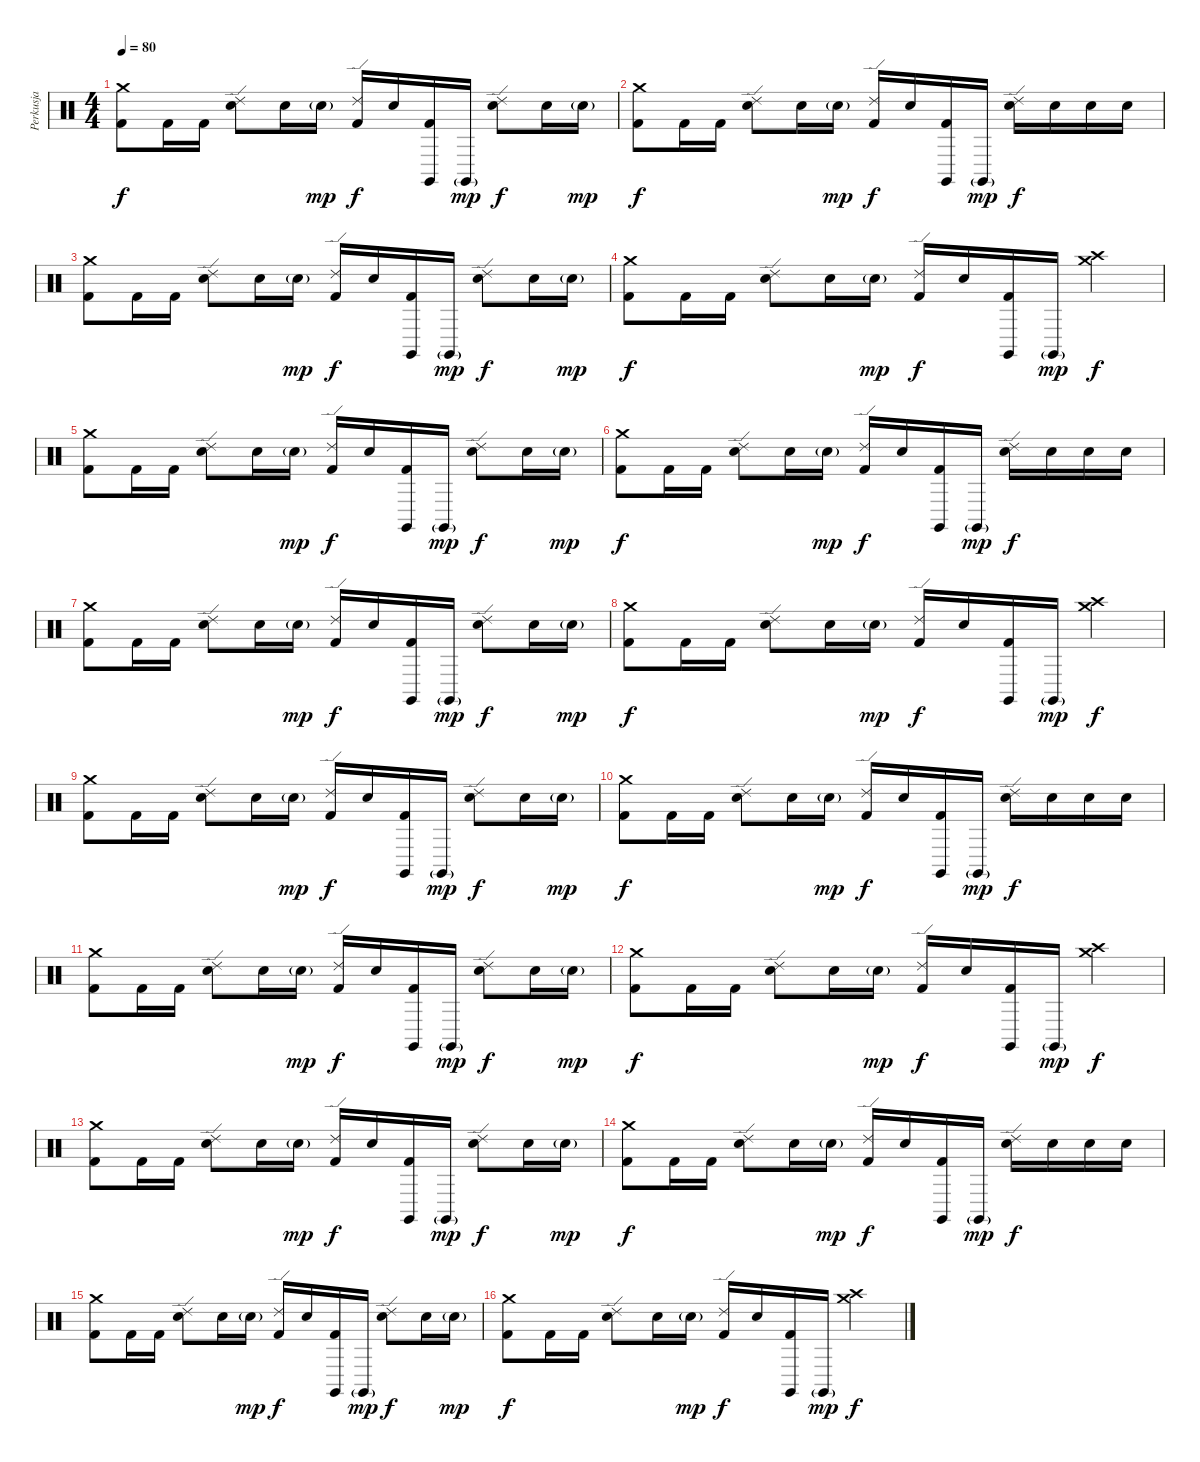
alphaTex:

\track ("Perkusja" "Perkusja") {instrument percussion}
\staff {score}
\articulation defaults
\ts (4 4)
\tempo 80
\clef neutral
\ks c
("Crash medium (hit)" "Kick (hit) 2").8{dy f} "Kick (hit) 2".16 "Kick (hit) 2".16 ("Ride (edge) 2" "Snare (hit) 2").8 "Snare (hit) 2".16 "Snare (hit) 2"{g}.16{dy mp} ("Ride (edge) 2" "Kick (hit) 2").16{dy f} "Snare (hit) 2".16 ("Claves (hit)" "Kick (hit) 2").16 "Claves (hit)"{g}.16{dy mp} ("Ride (edge) 2" "Snare (hit) 2").8{dy f} "Snare (hit) 2".16 "Snare (hit) 2"{g}.16{dy mp} |
("Crash medium (hit)" "Kick (hit) 2").8{dy f} "Kick (hit) 2".16 "Kick (hit) 2".16 ("Ride (edge) 2" "Snare (hit) 2").8 "Snare (hit) 2".16 "Snare (hit) 2"{g}.16{dy mp} ("Ride (edge) 2" "Kick (hit) 2").16{dy f} "Snare (hit) 2".16 ("Claves (hit)" "Kick (hit) 2").16 "Claves (hit)"{g}.16{dy mp} ("Ride (edge) 2" "Snare (hit) 2").16{dy f} "Electric Snare (hit)".16 "Electric Snare (hit)".16 "Electric Snare (hit)".16 |
("Crash medium (hit)" "Kick (hit) 2").8 "Kick (hit) 2".16 "Kick (hit) 2".16 ("Ride (edge) 2" "Snare (hit) 2").8 "Snare (hit) 2".16 "Snare (hit) 2"{g}.16{dy mp} ("Ride (edge) 2" "Kick (hit) 2").16{dy f} "Snare (hit) 2".16 ("Claves (hit)" "Kick (hit) 2").16 "Claves (hit)"{g}.16{dy mp} ("Ride (edge) 2" "Snare (hit) 2").8{dy f} "Snare (hit) 2".16 "Snare (hit) 2"{g}.16{dy mp} |
("Crash medium (hit)" "Kick (hit) 2").8{dy f} "Kick (hit) 2".16 "Kick (hit) 2".16 ("Ride (edge) 2" "Snare (hit) 2").8 "Snare (hit) 2".16 "Snare (hit) 2"{g}.16{dy mp} ("Ride (edge) 2" "Kick (hit) 2").16{dy f} "Snare (hit) 2".16 ("Claves (hit)" "Kick (hit) 2").16 "Claves (hit)"{g}.16{dy mp} ("Crash high (hit)" "Crash medium (hit)").4{dy f} |
("Crash medium (hit)" "Kick (hit) 2").8 "Kick (hit) 2".16 "Kick (hit) 2".16 ("Ride (edge) 2" "Snare (hit) 2").8 "Snare (hit) 2".16 "Snare (hit) 2"{g}.16{dy mp} ("Ride (edge) 2" "Kick (hit) 2").16{dy f} "Snare (hit) 2".16 ("Claves (hit)" "Kick (hit) 2").16 "Claves (hit)"{g}.16{dy mp} ("Ride (edge) 2" "Snare (hit) 2").8{dy f} "Snare (hit) 2".16 "Snare (hit) 2"{g}.16{dy mp} |
("Crash medium (hit)" "Kick (hit) 2").8{dy f} "Kick (hit) 2".16 "Kick (hit) 2".16 ("Ride (edge) 2" "Snare (hit) 2").8 "Snare (hit) 2".16 "Snare (hit) 2"{g}.16{dy mp} ("Ride (edge) 2" "Kick (hit) 2").16{dy f} "Snare (hit) 2".16 ("Claves (hit)" "Kick (hit) 2").16 "Claves (hit)"{g}.16{dy mp} ("Ride (edge) 2" "Snare (hit) 2").16{dy f} "Electric Snare (hit)".16 "Electric Snare (hit)".16 "Electric Snare (hit)".16 |
("Crash medium (hit)" "Kick (hit) 2").8 "Kick (hit) 2".16 "Kick (hit) 2".16 ("Ride (edge) 2" "Snare (hit) 2").8 "Snare (hit) 2".16 "Snare (hit) 2"{g}.16{dy mp} ("Ride (edge) 2" "Kick (hit) 2").16{dy f} "Snare (hit) 2".16 ("Claves (hit)" "Kick (hit) 2").16 "Claves (hit)"{g}.16{dy mp} ("Ride (edge) 2" "Snare (hit) 2").8{dy f} "Snare (hit) 2".16 "Snare (hit) 2"{g}.16{dy mp} |
("Crash medium (hit)" "Kick (hit) 2").8{dy f} "Kick (hit) 2".16 "Kick (hit) 2".16 ("Ride (edge) 2" "Snare (hit) 2").8 "Snare (hit) 2".16 "Snare (hit) 2"{g}.16{dy mp} ("Ride (edge) 2" "Kick (hit) 2").16{dy f} "Snare (hit) 2".16 ("Claves (hit)" "Kick (hit) 2").16 "Claves (hit)"{g}.16{dy mp} ("Crash high (hit)" "Crash medium (hit)").4{dy f} |
("Crash medium (hit)" "Kick (hit) 2").8 "Kick (hit) 2".16 "Kick (hit) 2".16 ("Ride (edge) 2" "Snare (hit) 2").8 "Snare (hit) 2".16 "Snare (hit) 2"{g}.16{dy mp} ("Ride (edge) 2" "Kick (hit) 2").16{dy f} "Snare (hit) 2".16 ("Claves (hit)" "Kick (hit) 2").16 "Claves (hit)"{g}.16{dy mp} ("Ride (edge) 2" "Snare (hit) 2").8{dy f} "Snare (hit) 2".16 "Snare (hit) 2"{g}.16{dy mp} |
("Crash medium (hit)" "Kick (hit) 2").8{dy f} "Kick (hit) 2".16 "Kick (hit) 2".16 ("Ride (edge) 2" "Snare (hit) 2").8 "Snare (hit) 2".16 "Snare (hit) 2"{g}.16{dy mp} ("Ride (edge) 2" "Kick (hit) 2").16{dy f} "Snare (hit) 2".16 ("Claves (hit)" "Kick (hit) 2").16 "Claves (hit)"{g}.16{dy mp} ("Ride (edge) 2" "Snare (hit) 2").16{dy f} "Electric Snare (hit)".16 "Electric Snare (hit)".16 "Electric Snare (hit)".16 |
("Crash medium (hit)" "Kick (hit) 2").8 "Kick (hit) 2".16 "Kick (hit) 2".16 ("Ride (edge) 2" "Snare (hit) 2").8 "Snare (hit) 2".16 "Snare (hit) 2"{g}.16{dy mp} ("Ride (edge) 2" "Kick (hit) 2").16{dy f} "Snare (hit) 2".16 ("Claves (hit)" "Kick (hit) 2").16 "Claves (hit)"{g}.16{dy mp} ("Ride (edge) 2" "Snare (hit) 2").8{dy f} "Snare (hit) 2".16 "Snare (hit) 2"{g}.16{dy mp} |
("Crash medium (hit)" "Kick (hit) 2").8{dy f} "Kick (hit) 2".16 "Kick (hit) 2".16 ("Ride (edge) 2" "Snare (hit) 2").8 "Snare (hit) 2".16 "Snare (hit) 2"{g}.16{dy mp} ("Ride (edge) 2" "Kick (hit) 2").16{dy f} "Snare (hit) 2".16 ("Claves (hit)" "Kick (hit) 2").16 "Claves (hit)"{g}.16{dy mp} ("Crash high (hit)" "Crash medium (hit)").4{dy f} |
("Crash medium (hit)" "Kick (hit) 2").8 "Kick (hit) 2".16 "Kick (hit) 2".16 ("Ride (edge) 2" "Snare (hit) 2").8 "Snare (hit) 2".16 "Snare (hit) 2"{g}.16{dy mp} ("Ride (edge) 2" "Kick (hit) 2").16{dy f} "Snare (hit) 2".16 ("Claves (hit)" "Kick (hit) 2").16 "Claves (hit)"{g}.16{dy mp} ("Ride (edge) 2" "Snare (hit) 2").8{dy f} "Snare (hit) 2".16 "Snare (hit) 2"{g}.16{dy mp} |
("Crash medium (hit)" "Kick (hit) 2").8{dy f} "Kick (hit) 2".16 "Kick (hit) 2".16 ("Ride (edge) 2" "Snare (hit) 2").8 "Snare (hit) 2".16 "Snare (hit) 2"{g}.16{dy mp} ("Ride (edge) 2" "Kick (hit) 2").16{dy f} "Snare (hit) 2".16 ("Claves (hit)" "Kick (hit) 2").16 "Claves (hit)"{g}.16{dy mp} ("Ride (edge) 2" "Snare (hit) 2").16{dy f} "Electric Snare (hit)".16 "Electric Snare (hit)".16 "Electric Snare (hit)".16 |
("Crash medium (hit)" "Kick (hit) 2").8 "Kick (hit) 2".16 "Kick (hit) 2".16 ("Ride (edge) 2" "Snare (hit) 2").8 "Snare (hit) 2".16 "Snare (hit) 2"{g}.16{dy mp} ("Ride (edge) 2" "Kick (hit) 2").16{dy f} "Snare (hit) 2".16 ("Claves (hit)" "Kick (hit) 2").16 "Claves (hit)"{g}.16{dy mp} ("Ride (edge) 2" "Snare (hit) 2").8{dy f} "Snare (hit) 2".16 "Snare (hit) 2"{g}.16{dy mp} |
("Crash medium (hit)" "Kick (hit) 2").8{dy f} "Kick (hit) 2".16 "Kick (hit) 2".16 ("Ride (edge) 2" "Snare (hit) 2").8 "Snare (hit) 2".16 "Snare (hit) 2"{g}.16{dy mp} ("Ride (edge) 2" "Kick (hit) 2").16{dy f} "Snare (hit) 2".16 ("Claves (hit)" "Kick (hit) 2").16 "Claves (hit)"{g}.16{dy mp} ("Crash high (hit)" "Crash medium (hit)").4{dy f}
